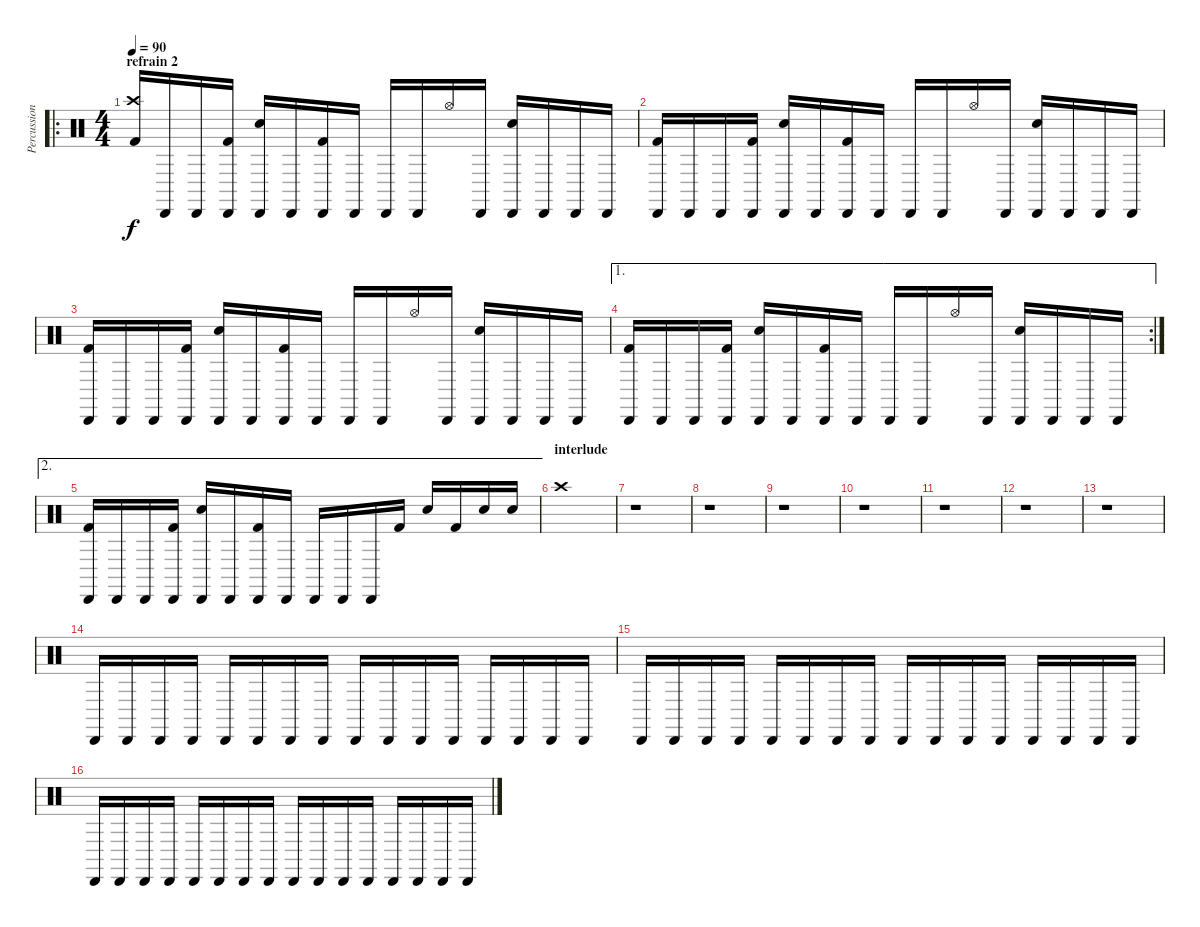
\track ("Percussions" "Percussion") {instrument percussion}
\staff {score}
\articulation defaults
\ro
\ts (4 4)
\section ("" "refrain 2")
\tempo 90
\clef neutral
\ks c
("Crash high (hit)" "Kick (hit) 2").16{dy f} "Cabasa (hit)".16 "Cabasa (hit)".16 ("Cabasa (hit)" "Kick (hit) 2").16 ("Cabasa (hit)" "Electric Snare (hit)").16 "Cabasa (hit)".16 ("Cabasa (hit)" "Kick (hit) 2").16 "Cabasa (hit)".16 "Cabasa (hit)".16 "Cabasa (hit)".16 "Hi-Hat (open)".16 "Cabasa (hit)".16 ("Cabasa (hit)" "Electric Snare (hit)").16 "Cabasa (hit)".16 "Cabasa (hit)".16 "Cabasa (hit)".16 |
("Cabasa (hit)" "Kick (hit) 2").16 "Cabasa (hit)".16 "Cabasa (hit)".16 ("Cabasa (hit)" "Kick (hit) 2").16 ("Cabasa (hit)" "Electric Snare (hit)").16 "Cabasa (hit)".16 ("Cabasa (hit)" "Kick (hit) 2").16 "Cabasa (hit)".16 "Cabasa (hit)".16 "Cabasa (hit)".16 "Hi-Hat (open)".16 "Cabasa (hit)".16 ("Cabasa (hit)" "Electric Snare (hit)").16 "Cabasa (hit)".16 "Cabasa (hit)".16 "Cabasa (hit)".16 |
("Cabasa (hit)" "Kick (hit) 2").16 "Cabasa (hit)".16 "Cabasa (hit)".16 ("Cabasa (hit)" "Kick (hit) 2").16 ("Cabasa (hit)" "Electric Snare (hit)").16 "Cabasa (hit)".16 ("Cabasa (hit)" "Kick (hit) 2").16 "Cabasa (hit)".16 "Cabasa (hit)".16 "Cabasa (hit)".16 "Hi-Hat (open)".16 "Cabasa (hit)".16 ("Cabasa (hit)" "Electric Snare (hit)").16 "Cabasa (hit)".16 "Cabasa (hit)".16 "Cabasa (hit)".16 |
\ae 1
\rc 2
("Cabasa (hit)" "Kick (hit) 2").16 "Cabasa (hit)".16 "Cabasa (hit)".16 ("Cabasa (hit)" "Kick (hit) 2").16 ("Cabasa (hit)" "Electric Snare (hit)").16 "Cabasa (hit)".16 ("Cabasa (hit)" "Kick (hit) 2").16 "Cabasa (hit)".16 "Cabasa (hit)".16 "Cabasa (hit)".16 "Hi-Hat (open)".16 "Cabasa (hit)".16 ("Cabasa (hit)" "Electric Snare (hit)").16 "Cabasa (hit)".16 "Cabasa (hit)".16 "Cabasa (hit)".16 |
\ae 2
("Cabasa (hit)" "Kick (hit) 2").16 "Cabasa (hit)".16 "Cabasa (hit)".16 ("Cabasa (hit)" "Kick (hit) 2").16 ("Cabasa (hit)" "Electric Snare (hit)").16 "Cabasa (hit)".16 ("Cabasa (hit)" "Kick (hit) 2").16 "Cabasa (hit)".16 "Cabasa (hit)".16 "Cabasa (hit)".16 "Cabasa (hit)".16 "Kick (hit) 2".16 "Electric Snare (hit)".16 "Kick (hit) 2".16 "Electric Snare (hit)".16 "Electric Snare (hit)".16 |
\section ("" "interlude")
"Crash high (hit)".1 |
r.1 |
r.1 |
r.1 |
r.1 |
r.1 |
r.1 |
r.1 |
"Cabasa (hit)".16 "Cabasa (hit)".16 "Cabasa (hit)".16 "Cabasa (hit)".16 "Cabasa (hit)".16 "Cabasa (hit)".16 "Cabasa (hit)".16 "Cabasa (hit)".16 "Cabasa (hit)".16 "Cabasa (hit)".16 "Cabasa (hit)".16 "Cabasa (hit)".16 "Cabasa (hit)".16 "Cabasa (hit)".16 "Cabasa (hit)".16 "Cabasa (hit)".16 |
"Cabasa (hit)".16 "Cabasa (hit)".16 "Cabasa (hit)".16 "Cabasa (hit)".16 "Cabasa (hit)".16 "Cabasa (hit)".16 "Cabasa (hit)".16 "Cabasa (hit)".16 "Cabasa (hit)".16 "Cabasa (hit)".16 "Cabasa (hit)".16 "Cabasa (hit)".16 "Cabasa (hit)".16 "Cabasa (hit)".16 "Cabasa (hit)".16 "Cabasa (hit)".16 |
"Cabasa (hit)".16 "Cabasa (hit)".16 "Cabasa (hit)".16 "Cabasa (hit)".16 "Cabasa (hit)".16 "Cabasa (hit)".16 "Cabasa (hit)".16 "Cabasa (hit)".16 "Cabasa (hit)".16 "Cabasa (hit)".16 "Cabasa (hit)".16 "Cabasa (hit)".16 "Cabasa (hit)".16 "Cabasa (hit)".16 "Cabasa (hit)".16 "Cabasa (hit)".16
